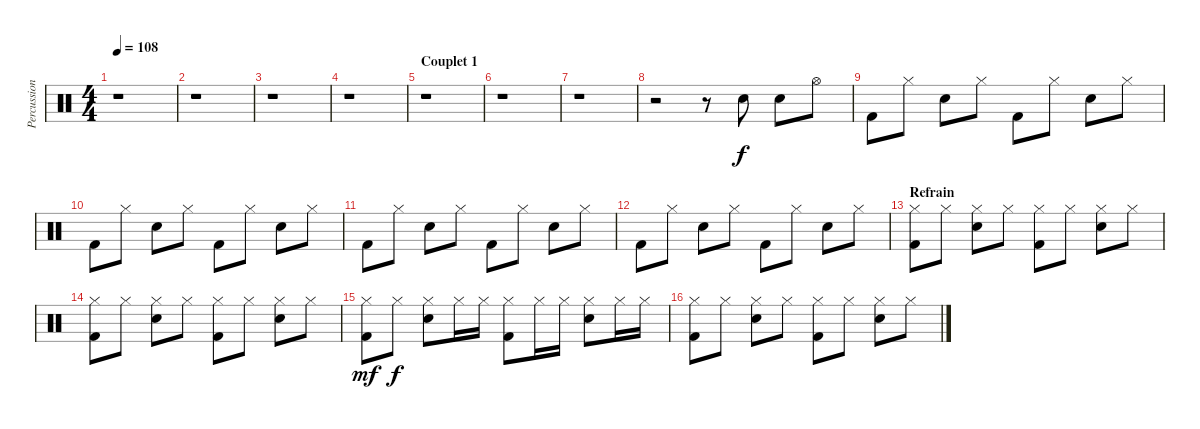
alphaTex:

\track ("Percussions" "Percussion") {instrument percussion}
\staff {score}
\articulation defaults
\ts (4 4)
\tempo 108
\clef neutral
\ks c
r.1{dy f} |
r.1 |
r.1 |
r.1 |
\section ("" "Couplet 1")
r.1 |
r.1 |
r.1 |
r.2 r.8 "Electric Snare (hit)".8 "Electric Snare (hit)".8 "Hi-Hat (open)".8 |
"Kick (hit) 2".8 "Hi-Hat (closed)".8 "Electric Snare (hit)".8 "Hi-Hat (closed)".8 "Kick (hit) 2".8 "Hi-Hat (closed)".8 "Electric Snare (hit)".8 "Hi-Hat (closed)".8 |
"Kick (hit) 2".8 "Hi-Hat (closed)".8 "Electric Snare (hit)".8 "Hi-Hat (closed)".8 "Kick (hit) 2".8 "Hi-Hat (closed)".8 "Electric Snare (hit)".8 "Hi-Hat (closed)".8 |
"Kick (hit) 2".8 "Hi-Hat (closed)".8 "Electric Snare (hit)".8 "Hi-Hat (closed)".8 "Kick (hit) 2".8 "Hi-Hat (closed)".8 "Electric Snare (hit)".8 "Hi-Hat (closed)".8 |
"Kick (hit) 2".8 "Hi-Hat (closed)".8 "Electric Snare (hit)".8 "Hi-Hat (closed)".8 "Kick (hit) 2".8 "Hi-Hat (closed)".8 "Electric Snare (hit)".8 "Hi-Hat (closed)".8 |
\section ("" "Refrain")
("Hi-Hat (closed)" "Kick (hit) 2").8 "Hi-Hat (closed)".8 ("Hi-Hat (closed)" "Electric Snare (hit)").8 "Hi-Hat (closed)".8 ("Hi-Hat (closed)" "Kick (hit) 2").8 "Hi-Hat (closed)".8 ("Hi-Hat (closed)" "Electric Snare (hit)").8 "Hi-Hat (closed)".8 |
("Hi-Hat (closed)" "Kick (hit) 2").8 "Hi-Hat (closed)".8 ("Hi-Hat (closed)" "Electric Snare (hit)").8 "Hi-Hat (closed)".8 ("Hi-Hat (closed)" "Kick (hit) 2").8 "Hi-Hat (closed)".8 ("Hi-Hat (closed)" "Electric Snare (hit)").8 "Hi-Hat (closed)".8 |
("Hi-Hat (closed)" "Kick (hit) 2").8{dy mf} "Hi-Hat (closed)".8{dy f} ("Hi-Hat (closed)" "Electric Snare (hit)").8 "Hi-Hat (closed)".16 "Hi-Hat (closed)".16 ("Hi-Hat (closed)" "Kick (hit) 2").8 "Hi-Hat (closed)".16 "Hi-Hat (closed)".16 ("Hi-Hat (closed)" "Electric Snare (hit)").8 "Hi-Hat (closed)".16 "Hi-Hat (closed)".16 |
("Hi-Hat (closed)" "Kick (hit) 2").8 "Hi-Hat (closed)".8 ("Hi-Hat (closed)" "Electric Snare (hit)").8 "Hi-Hat (closed)".8 ("Hi-Hat (closed)" "Kick (hit) 2").8 "Hi-Hat (closed)".8 ("Hi-Hat (closed)" "Electric Snare (hit)").8 "Hi-Hat (closed)".8
